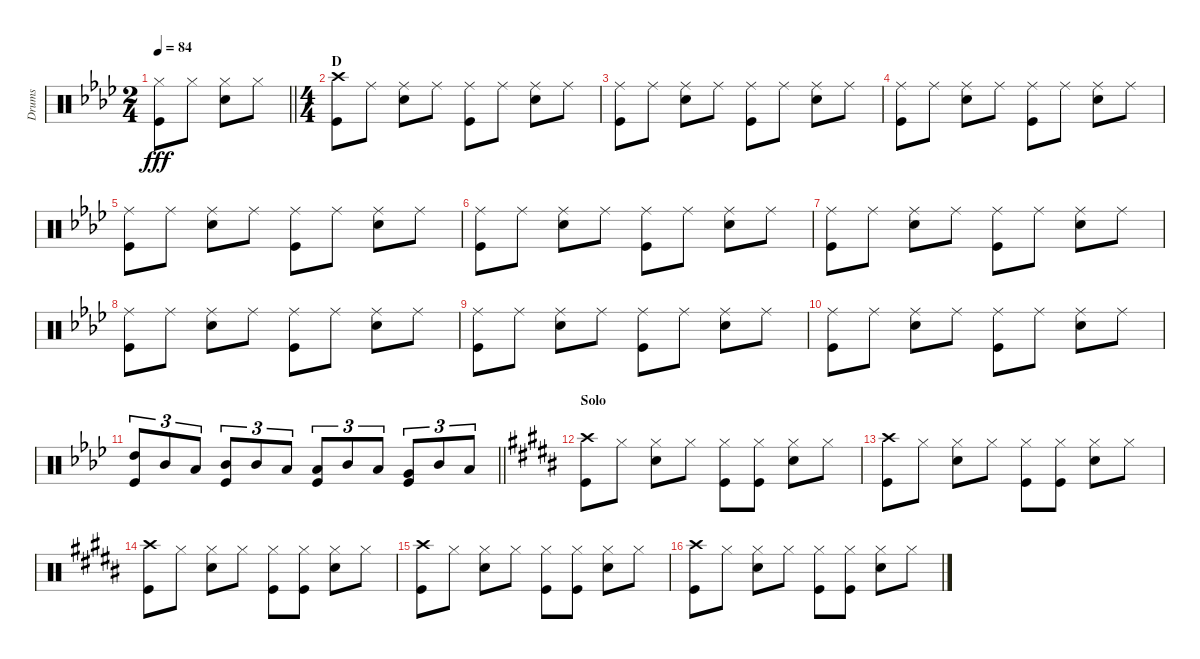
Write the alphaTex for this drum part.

\track ("Drums" "Drums") {instrument percussion}
\staff {score}
\articulation defaults
\ts (2 4)
\tempo 84
\clef neutral
\barLineRight lightlight
\ks ab
("Hi-Hat (closed)" "Kick (hit)").8{dy fff} "Hi-Hat (closed)".8 ("Hi-Hat (closed)" "Snare (hit) 2").8 "Hi-Hat (closed)".8 |
\ts (4 4)
\section ("" "D")
("Crash high (hit)" "Kick (hit)").8 "Ride (middle)".8 ("Ride (middle)" "Snare (hit) 2").8 "Ride (middle)".8 ("Ride (middle)" "Kick (hit)").8 "Ride (middle)".8 ("Ride (middle)" "Snare (hit) 2").8 "Ride (middle)".8 |
("Ride (middle)" "Kick (hit)").8 "Ride (middle)".8 ("Ride (middle)" "Snare (hit) 2").8 "Ride (middle)".8 ("Ride (middle)" "Kick (hit)").8 "Ride (middle)".8 ("Ride (middle)" "Snare (hit) 2").8 "Ride (middle)".8 |
("Ride (middle)" "Kick (hit)").8 "Ride (middle)".8 ("Ride (middle)" "Snare (hit) 2").8 "Ride (middle)".8 ("Ride (middle)" "Kick (hit)").8 "Ride (middle)".8 ("Ride (middle)" "Snare (hit) 2").8 "Ride (middle)".8 |
("Ride (middle)" "Kick (hit)").8 "Ride (middle)".8 ("Ride (middle)" "Snare (hit) 2").8 "Ride (middle)".8 ("Ride (middle)" "Kick (hit)").8 "Ride (middle)".8 ("Ride (middle)" "Snare (hit) 2").8 "Ride (middle)".8 |
("Ride (middle)" "Kick (hit)").8 "Ride (middle)".8 ("Ride (middle)" "Snare (hit) 2").8 "Ride (middle)".8 ("Ride (middle)" "Kick (hit)").8 "Ride (middle)".8 ("Ride (middle)" "Snare (hit) 2").8 "Ride (middle)".8 |
("Ride (middle)" "Kick (hit)").8 "Ride (middle)".8 ("Ride (middle)" "Snare (hit) 2").8 "Ride (middle)".8 ("Ride (middle)" "Kick (hit)").8 "Ride (middle)".8 ("Ride (middle)" "Snare (hit) 2").8 "Ride (middle)".8 |
("Ride (middle)" "Kick (hit)").8 "Ride (middle)".8 ("Ride (middle)" "Snare (hit) 2").8 "Ride (middle)".8 ("Ride (middle)" "Kick (hit)").8 "Ride (middle)".8 ("Ride (middle)" "Snare (hit) 2").8 "Ride (middle)".8 |
("Ride (middle)" "Kick (hit)").8 "Ride (middle)".8 ("Ride (middle)" "Snare (hit) 2").8 "Ride (middle)".8 ("Ride (middle)" "Kick (hit)").8 "Ride (middle)".8 ("Ride (middle)" "Snare (hit) 2").8 "Ride (middle)".8 |
("Ride (middle)" "Kick (hit)").8 "Ride (middle)".8 ("Ride (middle)" "Snare (hit) 2").8 "Ride (middle)".8 ("Ride (middle)" "Kick (hit)").8 "Ride (middle)".8 ("Ride (middle)" "Snare (hit) 2").8 "Ride (middle)".8 |
\barLineRight lightlight
("High Tom (hit)" "Kick (hit)").8{tu (3 2)} "Mid Tom (hit)".8{tu (3 2)} "Low Tom (hit)".8{tu (3 2)} ("Mid Tom (hit)" "Kick (hit)").8{tu (3 2)} "Mid Tom (hit)".8{tu (3 2)} "Low Tom (hit)".8{tu (3 2)} ("Low Tom (hit)" "Kick (hit)").8{tu (3 2)} "Mid Tom (hit)".8{tu (3 2)} "Low Tom (hit)".8{tu (3 2)} ("Very Low Tom (hit)" "Kick (hit)").8{tu (3 2)} "Mid Tom (hit)".8{tu (3 2)} "Low Tom (hit)".8{tu (3 2)} |
\section ("" "Solo")
\ks b
("Crash high (hit)" "Kick (hit)").8 "Hi-Hat (closed)".8 ("Hi-Hat (closed)" "Snare (hit) 2").8 "Hi-Hat (closed)".8 ("Hi-Hat (closed)" "Kick (hit)").8 ("Hi-Hat (closed)" "Kick (hit)").8 ("Hi-Hat (closed)" "Snare (hit) 2").8 "Hi-Hat (closed)".8 |
("Crash high (hit)" "Kick (hit)").8 "Hi-Hat (closed)".8 ("Hi-Hat (closed)" "Snare (hit) 2").8 "Hi-Hat (closed)".8 ("Hi-Hat (closed)" "Kick (hit)").8 ("Hi-Hat (closed)" "Kick (hit)").8 ("Hi-Hat (closed)" "Snare (hit) 2").8 "Hi-Hat (closed)".8 |
("Crash high (hit)" "Kick (hit)").8 "Hi-Hat (closed)".8 ("Hi-Hat (closed)" "Snare (hit) 2").8 "Hi-Hat (closed)".8 ("Hi-Hat (closed)" "Kick (hit)").8 ("Hi-Hat (closed)" "Kick (hit)").8 ("Hi-Hat (closed)" "Snare (hit) 2").8 "Hi-Hat (closed)".8 |
("Crash high (hit)" "Kick (hit)").8 "Hi-Hat (closed)".8 ("Hi-Hat (closed)" "Snare (hit) 2").8 "Hi-Hat (closed)".8 ("Hi-Hat (closed)" "Kick (hit)").8 ("Hi-Hat (closed)" "Kick (hit)").8 ("Hi-Hat (closed)" "Snare (hit) 2").8 "Hi-Hat (closed)".8 |
("Crash high (hit)" "Kick (hit)").8 "Hi-Hat (closed)".8 ("Hi-Hat (closed)" "Snare (hit) 2").8 "Hi-Hat (closed)".8 ("Hi-Hat (closed)" "Kick (hit)").8 ("Hi-Hat (closed)" "Kick (hit)").8 ("Hi-Hat (closed)" "Snare (hit) 2").8 "Hi-Hat (closed)".8
